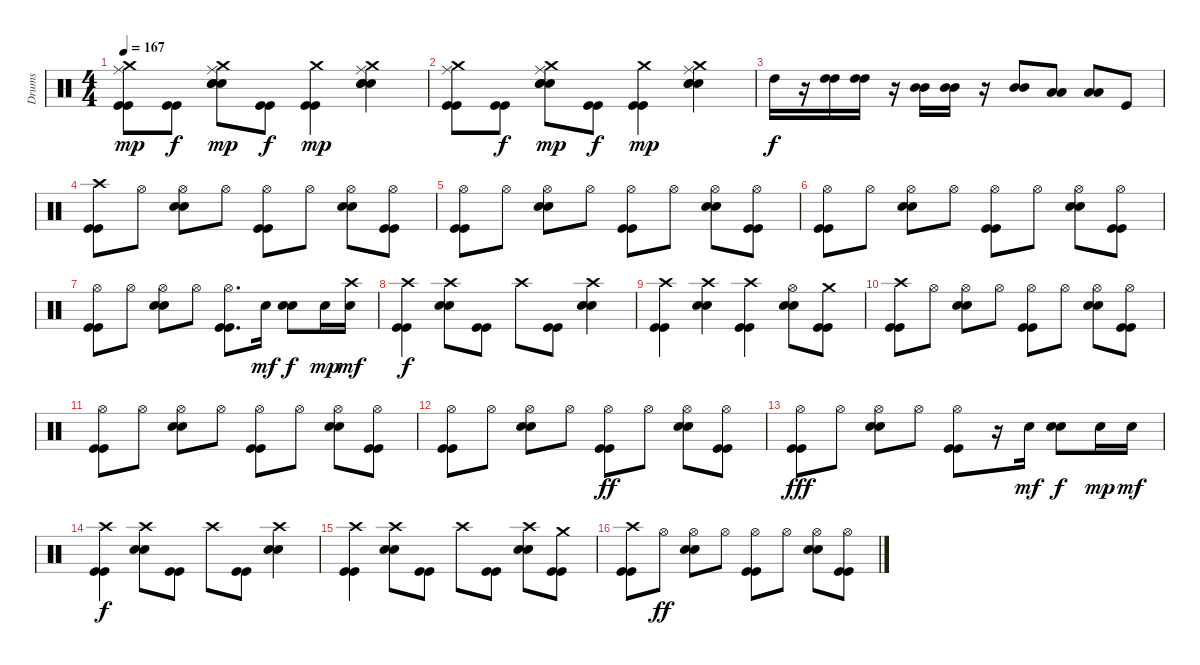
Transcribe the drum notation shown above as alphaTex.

\track ("Drums" "Drums") {instrument percussion}
\staff {score}
\articulation defaults
\ts (4 4)
\tempo 167
\clef neutral
\ks c
("Ride (middle)" "Crash medium (hit)" "Kick (hit)" "Kick (hit)").8{dy mp} ("Kick (hit)" "Kick (hit)").8{dy f} ("Crash medium (hit)" "Snare (hit) 2" "Snare (hit) 2" "Snare (hit) 2" "Ride (middle)").8{dy mp} ("Kick (hit)" "Kick (hit)").8{dy f} ("Crash medium (hit)" "Kick (hit)" "Kick (hit)").4{dy mp} ("Crash medium (hit)" "Snare (hit) 2" "Snare (hit) 2" "Snare (hit) 2" "Ride (middle)").4 |
("Ride (middle)" "Crash medium (hit)" "Kick (hit)" "Kick (hit)").8 ("Kick (hit)" "Kick (hit)").8{dy f} ("Crash medium (hit)" "Snare (hit) 2" "Snare (hit) 2" "Snare (hit) 2" "Ride (middle)").8{dy mp} ("Kick (hit)" "Kick (hit)").8{dy f} ("Crash medium (hit)" "Kick (hit)" "Kick (hit)").4{dy mp} ("Crash medium (hit)" "Snare (hit) 2" "Snare (hit) 2" "Snare (hit) 2" "Ride (middle)").4 |
"High Tom (hit)".16{dy f} r.16 ("High Tom (hit)" "High Tom (hit)").16 ("High Tom (hit)" "High Tom (hit)").16 r.16 ("Mid Tom (hit)" "Mid Tom (hit)").16 ("Mid Tom (hit)" "Mid Tom (hit)").16 r.16 ("Mid Tom (hit)" "Mid Tom (hit)").8 ("Low Tom (hit)" "Low Tom (hit)").8 ("Low Tom (hit)" "Low Tom (hit)").8 "Kick (hit)".8 |
("Crash high (hit)" "Kick (hit)" "Kick (hit)").8 "Hi-Hat (open)".8 ("Hi-Hat (open)" "Snare (hit) 2" "Snare (hit) 2").8 "Hi-Hat (open)".8 ("Hi-Hat (open)" "Kick (hit)" "Kick (hit)").8 "Hi-Hat (open)".8 ("Hi-Hat (open)" "Snare (hit) 2" "Snare (hit) 2").8 ("Hi-Hat (open)" "Kick (hit)" "Kick (hit)").8 |
("Hi-Hat (open)" "Kick (hit)" "Kick (hit)").8 "Hi-Hat (open)".8 ("Hi-Hat (open)" "Snare (hit) 2" "Snare (hit) 2").8 "Hi-Hat (open)".8 ("Hi-Hat (open)" "Kick (hit)" "Kick (hit)").8 "Hi-Hat (open)".8 ("Hi-Hat (open)" "Snare (hit) 2" "Snare (hit) 2").8 ("Hi-Hat (open)" "Kick (hit)" "Kick (hit)").8 |
("Hi-Hat (open)" "Kick (hit)" "Kick (hit)").8 "Hi-Hat (open)".8 ("Hi-Hat (open)" "Snare (hit) 2" "Snare (hit) 2").8 "Hi-Hat (open)".8 ("Hi-Hat (open)" "Kick (hit)" "Kick (hit)").8 "Hi-Hat (open)".8 ("Hi-Hat (open)" "Snare (hit) 2" "Snare (hit) 2").8 ("Hi-Hat (open)" "Kick (hit)" "Kick (hit)").8 |
("Hi-Hat (open)" "Kick (hit)" "Kick (hit)").8 "Hi-Hat (open)".8 ("Hi-Hat (open)" "Snare (hit) 2" "Snare (hit) 2").8 "Hi-Hat (open)".8 ("Hi-Hat (open)" "Kick (hit)" "Kick (hit)").8{d} "Snare (hit) 2".16{dy mf} ("Snare (hit) 2" "Snare (hit) 2").8{dy f} "Snare (hit) 2".16{dy mp} ("Crash high (hit)" "Snare (hit) 2").16{dy mf} |
("Crash high (hit)" "Kick (hit)" "Kick (hit)").4{dy f} ("Crash high (hit)" "Snare (hit) 2" "Snare (hit) 2").8 ("Kick (hit)" "Kick (hit)").8 "Crash high (hit)".8 ("Kick (hit)" "Kick (hit)").8 ("Crash high (hit)" "Snare (hit) 2" "Snare (hit) 2").4 |
("Crash high (hit)" "Kick (hit)" "Kick (hit)").4 ("Crash high (hit)" "Snare (hit) 2" "Snare (hit) 2").4 ("Crash high (hit)" "Kick (hit)" "Kick (hit)").4 ("Hi-Hat (open)" "Snare (hit) 2" "Snare (hit) 2").8 ("Crash medium (hit)" "Kick (hit)" "Kick (hit)").8 |
("Crash high (hit)" "Kick (hit)" "Kick (hit)").8 "Hi-Hat (open)".8 ("Hi-Hat (open)" "Snare (hit) 2" "Snare (hit) 2").8 "Hi-Hat (open)".8 ("Hi-Hat (open)" "Kick (hit)" "Kick (hit)").8 "Hi-Hat (open)".8 ("Hi-Hat (open)" "Snare (hit) 2" "Snare (hit) 2").8 ("Hi-Hat (open)" "Kick (hit)" "Kick (hit)").8 |
("Hi-Hat (open)" "Kick (hit)" "Kick (hit)").8 "Hi-Hat (open)".8 ("Hi-Hat (open)" "Snare (hit) 2" "Snare (hit) 2").8 "Hi-Hat (open)".8 ("Hi-Hat (open)" "Kick (hit)" "Kick (hit)").8 "Hi-Hat (open)".8 ("Hi-Hat (open)" "Snare (hit) 2" "Snare (hit) 2").8 ("Hi-Hat (open)" "Kick (hit)" "Kick (hit)").8 |
("Hi-Hat (open)" "Kick (hit)" "Kick (hit)").8 "Hi-Hat (open)".8 ("Hi-Hat (open)" "Snare (hit) 2" "Snare (hit) 2").8 "Hi-Hat (open)".8 ("Hi-Hat (open)" "Kick (hit)" "Kick (hit)").8{dy ff} "Hi-Hat (open)".8 ("Hi-Hat (open)" "Snare (hit) 2" "Snare (hit) 2").8 ("Hi-Hat (open)" "Kick (hit)" "Kick (hit)").8 |
("Hi-Hat (open)" "Kick (hit)" "Kick (hit)").8{dy fff} "Hi-Hat (open)".8 ("Hi-Hat (open)" "Snare (hit) 2" "Snare (hit) 2").8 "Hi-Hat (open)".8 ("Hi-Hat (open)" "Kick (hit)" "Kick (hit)").8 r.16 "Snare (hit) 2".16{dy mf} ("Snare (hit) 2" "Snare (hit) 2").8{dy f} "Snare (hit) 2".16{dy mp} "Snare (hit) 2".16{dy mf} |
("Crash high (hit)" "Kick (hit)" "Kick (hit)").4{dy f} ("Crash high (hit)" "Snare (hit) 2" "Snare (hit) 2").8 ("Kick (hit)" "Kick (hit)").8 "Crash high (hit)".8 ("Kick (hit)" "Kick (hit)").8 ("Crash high (hit)" "Snare (hit) 2" "Snare (hit) 2").4 |
("Crash high (hit)" "Kick (hit)" "Kick (hit)").4 ("Crash high (hit)" "Snare (hit) 2" "Snare (hit) 2").8 ("Kick (hit)" "Kick (hit)").8 "Crash high (hit)".8 ("Kick (hit)" "Kick (hit)").8 ("Crash high (hit)" "Snare (hit) 2" "Snare (hit) 2").8 ("Crash medium (hit)" "Kick (hit)" "Kick (hit)").8 |
("Crash high (hit)" "Kick (hit)" "Kick (hit)").8 "Hi-Hat (open)".8{dy ff} ("Hi-Hat (open)" "Snare (hit) 2" "Snare (hit) 2").8 "Hi-Hat (open)".8 ("Hi-Hat (open)" "Kick (hit)" "Kick (hit)").8 "Hi-Hat (open)".8 ("Hi-Hat (open)" "Snare (hit) 2" "Snare (hit) 2").8 ("Hi-Hat (open)" "Kick (hit)" "Kick (hit)").8
